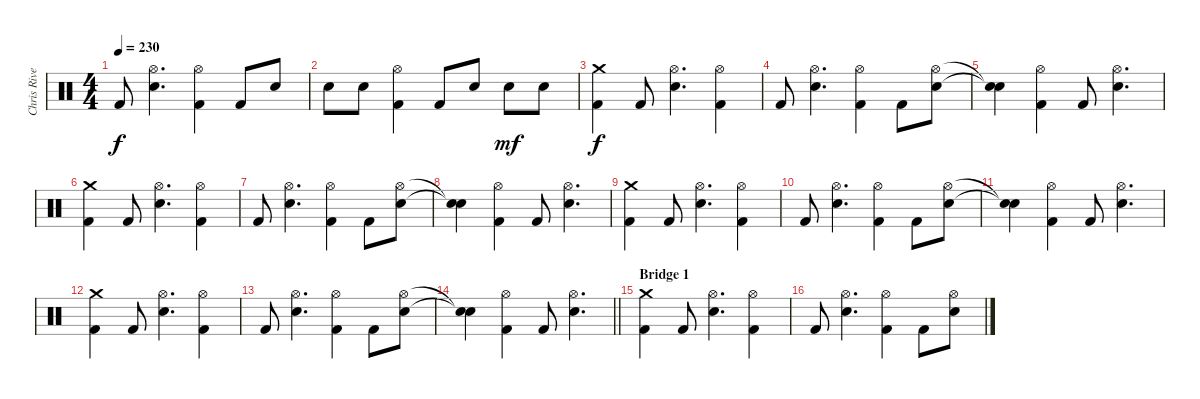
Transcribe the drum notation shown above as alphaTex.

\track ("Chris Rivers" "Chris Rive") {instrument percussion}
\staff {score}
\articulation defaults
\ts (4 4)
\tempo 230
\clef neutral
\ks c "Kick (hit) 2".8{dy f}
("Hi-Hat (open)" "Electric Snare (hit)").4{d} ("Hi-Hat (open)" "Kick (hit) 2").4 "Kick (hit) 2".8 "Electric Snare (hit)".8 |
"Electric Snare (hit)".8 "Electric Snare (hit)".8 ("Hi-Hat (open)" "Kick (hit) 2").4 "Kick (hit) 2".8 "Electric Snare (hit)".8 "Electric Snare (hit)".8{dy mf} "Electric Snare (hit)".8 |
("Crash medium (hit)" "Kick (hit) 2").4{dy f} "Kick (hit) 2".8 ("Hi-Hat (open)" "Electric Snare (hit)").4{d} ("Hi-Hat (open)" "Kick (hit) 2").4 |
"Kick (hit) 2".8 ("Hi-Hat (open)" "Electric Snare (hit)").4{d} ("Hi-Hat (open)" "Kick (hit) 2").4 "Kick (hit) 2".8 ("Hi-Hat (open)" "Electric Snare (hit)").8 |
("Snare (hit)"{t} "Snare (hit)"{t}).4 ("Hi-Hat (open)" "Kick (hit) 2").4 "Kick (hit) 2".8 ("Hi-Hat (open)" "Electric Snare (hit)").4{d} |
("Crash medium (hit)" "Kick (hit) 2").4 "Kick (hit) 2".8 ("Hi-Hat (open)" "Electric Snare (hit)").4{d} ("Hi-Hat (open)" "Kick (hit) 2").4 |
"Kick (hit) 2".8 ("Hi-Hat (open)" "Electric Snare (hit)").4{d} ("Hi-Hat (open)" "Kick (hit) 2").4 "Kick (hit) 2".8 ("Hi-Hat (open)" "Electric Snare (hit)").8 |
("Snare (hit)"{t} "Snare (hit)"{t}).4 ("Hi-Hat (open)" "Kick (hit) 2").4 "Kick (hit) 2".8 ("Hi-Hat (open)" "Electric Snare (hit)").4{d} |
("Crash medium (hit)" "Kick (hit) 2").4 "Kick (hit) 2".8 ("Hi-Hat (open)" "Electric Snare (hit)").4{d} ("Hi-Hat (open)" "Kick (hit) 2").4 |
"Kick (hit) 2".8 ("Hi-Hat (open)" "Electric Snare (hit)").4{d} ("Hi-Hat (open)" "Kick (hit) 2").4 "Kick (hit) 2".8 ("Hi-Hat (open)" "Electric Snare (hit)").8 |
("Snare (hit)"{t} "Snare (hit)"{t}).4 ("Hi-Hat (open)" "Kick (hit) 2").4 "Kick (hit) 2".8 ("Hi-Hat (open)" "Electric Snare (hit)").4{d} |
("Crash medium (hit)" "Kick (hit) 2").4 "Kick (hit) 2".8 ("Hi-Hat (open)" "Electric Snare (hit)").4{d} ("Hi-Hat (open)" "Kick (hit) 2").4 |
"Kick (hit) 2".8 ("Hi-Hat (open)" "Electric Snare (hit)").4{d} ("Hi-Hat (open)" "Kick (hit) 2").4 "Kick (hit) 2".8 ("Hi-Hat (open)" "Electric Snare (hit)").8 |
\barLineRight lightlight
("Snare (hit)"{t} "Snare (hit)"{t}).4 ("Hi-Hat (open)" "Kick (hit) 2").4 "Kick (hit) 2".8 ("Hi-Hat (open)" "Electric Snare (hit)").4{d} |
\section ("" "Bridge 1")
("Crash medium (hit)" "Kick (hit) 2").4 "Kick (hit) 2".8 ("Hi-Hat (open)" "Electric Snare (hit)").4{d} ("Hi-Hat (open)" "Kick (hit) 2").4 |
"Kick (hit) 2".8 ("Hi-Hat (open)" "Electric Snare (hit)").4{d} ("Hi-Hat (open)" "Kick (hit) 2").4 "Kick (hit) 2".8 ("Hi-Hat (open)" "Electric Snare (hit)").8
